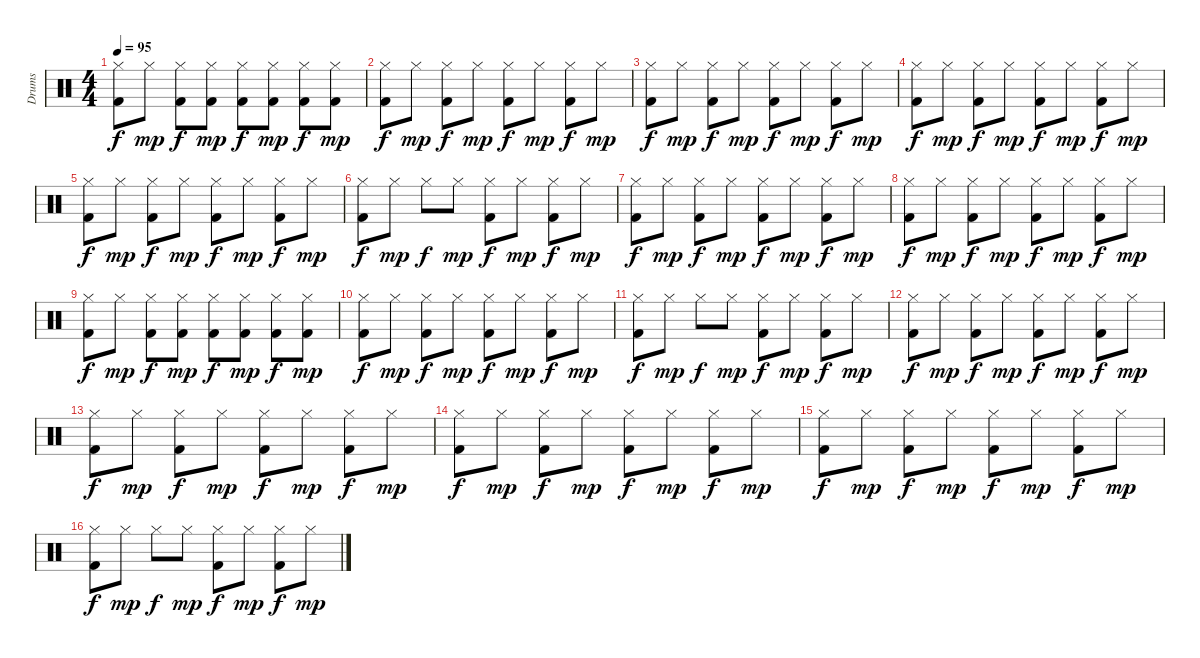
\track ("Drums" "Drums") {instrument percussion}
\staff {score}
\articulation defaults
\ts (4 4)
\tempo 95
\clef neutral
\ks c
("Kick (hit) 2" "Hi-Hat (closed)").8{dy f} "Hi-Hat (closed)".8{dy mp} ("Kick (hit) 2" "Hi-Hat (closed)").8{dy f} ("Kick (hit) 2" "Hi-Hat (closed)").8{dy mp} ("Kick (hit) 2" "Hi-Hat (closed)").8{dy f} ("Kick (hit) 2" "Hi-Hat (closed)").8{dy mp} ("Kick (hit) 2" "Hi-Hat (closed)").8{dy f} ("Kick (hit) 2" "Hi-Hat (closed)").8{dy mp} |
("Kick (hit) 2" "Hi-Hat (closed)").8{dy f} "Hi-Hat (closed)".8{dy mp} ("Kick (hit) 2" "Hi-Hat (closed)").8{dy f} "Hi-Hat (closed)".8{dy mp} ("Kick (hit) 2" "Hi-Hat (closed)").8{dy f} "Hi-Hat (closed)".8{dy mp} ("Kick (hit) 2" "Hi-Hat (closed)").8{dy f} "Hi-Hat (closed)".8{dy mp} |
("Kick (hit) 2" "Hi-Hat (closed)").8{dy f} "Hi-Hat (closed)".8{dy mp} ("Kick (hit) 2" "Hi-Hat (closed)").8{dy f} "Hi-Hat (closed)".8{dy mp} ("Kick (hit) 2" "Hi-Hat (closed)").8{dy f} "Hi-Hat (closed)".8{dy mp} ("Kick (hit) 2" "Hi-Hat (closed)").8{dy f} "Hi-Hat (closed)".8{dy mp} |
("Kick (hit) 2" "Hi-Hat (closed)").8{dy f} "Hi-Hat (closed)".8{dy mp} ("Kick (hit) 2" "Hi-Hat (closed)").8{dy f} "Hi-Hat (closed)".8{dy mp} ("Kick (hit) 2" "Hi-Hat (closed)").8{dy f} "Hi-Hat (closed)".8{dy mp} ("Kick (hit) 2" "Hi-Hat (closed)").8{dy f} "Hi-Hat (closed)".8{dy mp} |
("Kick (hit) 2" "Hi-Hat (closed)").8{dy f} "Hi-Hat (closed)".8{dy mp} ("Kick (hit) 2" "Hi-Hat (closed)").8{dy f} "Hi-Hat (closed)".8{dy mp} ("Kick (hit) 2" "Hi-Hat (closed)").8{dy f} "Hi-Hat (closed)".8{dy mp} ("Kick (hit) 2" "Hi-Hat (closed)").8{dy f} "Hi-Hat (closed)".8{dy mp} |
("Kick (hit) 2" "Hi-Hat (closed)").8{dy f} "Hi-Hat (closed)".8{dy mp} "Hi-Hat (closed)".8{dy f} "Hi-Hat (closed)".8{dy mp} ("Kick (hit) 2" "Hi-Hat (closed)").8{dy f} "Hi-Hat (closed)".8{dy mp} ("Kick (hit) 2" "Hi-Hat (closed)").8{dy f} "Hi-Hat (closed)".8{dy mp} |
("Kick (hit) 2" "Hi-Hat (closed)").8{dy f} "Hi-Hat (closed)".8{dy mp} ("Kick (hit) 2" "Hi-Hat (closed)").8{dy f} "Hi-Hat (closed)".8{dy mp} ("Kick (hit) 2" "Hi-Hat (closed)").8{dy f} "Hi-Hat (closed)".8{dy mp} ("Kick (hit) 2" "Hi-Hat (closed)").8{dy f} "Hi-Hat (closed)".8{dy mp} |
("Kick (hit) 2" "Hi-Hat (closed)").8{dy f} "Hi-Hat (closed)".8{dy mp} ("Kick (hit) 2" "Hi-Hat (closed)").8{dy f} "Hi-Hat (closed)".8{dy mp} ("Kick (hit) 2" "Hi-Hat (closed)").8{dy f} "Hi-Hat (closed)".8{dy mp} ("Kick (hit) 2" "Hi-Hat (closed)").8{dy f} "Hi-Hat (closed)".8{dy mp} |
("Kick (hit) 2" "Hi-Hat (closed)").8{dy f} "Hi-Hat (closed)".8{dy mp} ("Kick (hit) 2" "Hi-Hat (closed)").8{dy f} ("Kick (hit) 2" "Hi-Hat (closed)").8{dy mp} ("Kick (hit) 2" "Hi-Hat (closed)").8{dy f} ("Kick (hit) 2" "Hi-Hat (closed)").8{dy mp} ("Kick (hit) 2" "Hi-Hat (closed)").8{dy f} ("Kick (hit) 2" "Hi-Hat (closed)").8{dy mp} |
("Kick (hit) 2" "Hi-Hat (closed)").8{dy f} "Hi-Hat (closed)".8{dy mp} ("Kick (hit) 2" "Hi-Hat (closed)").8{dy f} "Hi-Hat (closed)".8{dy mp} ("Kick (hit) 2" "Hi-Hat (closed)").8{dy f} "Hi-Hat (closed)".8{dy mp} ("Kick (hit) 2" "Hi-Hat (closed)").8{dy f} "Hi-Hat (closed)".8{dy mp} |
("Kick (hit) 2" "Hi-Hat (closed)").8{dy f} "Hi-Hat (closed)".8{dy mp} "Hi-Hat (closed)".8{dy f} "Hi-Hat (closed)".8{dy mp} ("Kick (hit) 2" "Hi-Hat (closed)").8{dy f} "Hi-Hat (closed)".8{dy mp} ("Kick (hit) 2" "Hi-Hat (closed)").8{dy f} "Hi-Hat (closed)".8{dy mp} |
("Kick (hit) 2" "Hi-Hat (closed)").8{dy f} "Hi-Hat (closed)".8{dy mp} ("Kick (hit) 2" "Hi-Hat (closed)").8{dy f} "Hi-Hat (closed)".8{dy mp} ("Kick (hit) 2" "Hi-Hat (closed)").8{dy f} "Hi-Hat (closed)".8{dy mp} ("Kick (hit) 2" "Hi-Hat (closed)").8{dy f} "Hi-Hat (closed)".8{dy mp} |
("Kick (hit) 2" "Hi-Hat (closed)").8{dy f} "Hi-Hat (closed)".8{dy mp} ("Kick (hit) 2" "Hi-Hat (closed)").8{dy f} "Hi-Hat (closed)".8{dy mp} ("Kick (hit) 2" "Hi-Hat (closed)").8{dy f} "Hi-Hat (closed)".8{dy mp} ("Kick (hit) 2" "Hi-Hat (closed)").8{dy f} "Hi-Hat (closed)".8{dy mp} |
("Kick (hit) 2" "Hi-Hat (closed)").8{dy f} "Hi-Hat (closed)".8{dy mp} ("Kick (hit) 2" "Hi-Hat (closed)").8{dy f} "Hi-Hat (closed)".8{dy mp} ("Kick (hit) 2" "Hi-Hat (closed)").8{dy f} "Hi-Hat (closed)".8{dy mp} ("Kick (hit) 2" "Hi-Hat (closed)").8{dy f} "Hi-Hat (closed)".8{dy mp} |
("Kick (hit) 2" "Hi-Hat (closed)").8{dy f} "Hi-Hat (closed)".8{dy mp} ("Kick (hit) 2" "Hi-Hat (closed)").8{dy f} "Hi-Hat (closed)".8{dy mp} ("Kick (hit) 2" "Hi-Hat (closed)").8{dy f} "Hi-Hat (closed)".8{dy mp} ("Kick (hit) 2" "Hi-Hat (closed)").8{dy f} "Hi-Hat (closed)".8{dy mp} |
("Kick (hit) 2" "Hi-Hat (closed)").8{dy f} "Hi-Hat (closed)".8{dy mp} "Hi-Hat (closed)".8{dy f} "Hi-Hat (closed)".8{dy mp} ("Kick (hit) 2" "Hi-Hat (closed)").8{dy f} "Hi-Hat (closed)".8{dy mp} ("Kick (hit) 2" "Hi-Hat (closed)").8{dy f} "Hi-Hat (closed)".8{dy mp}
